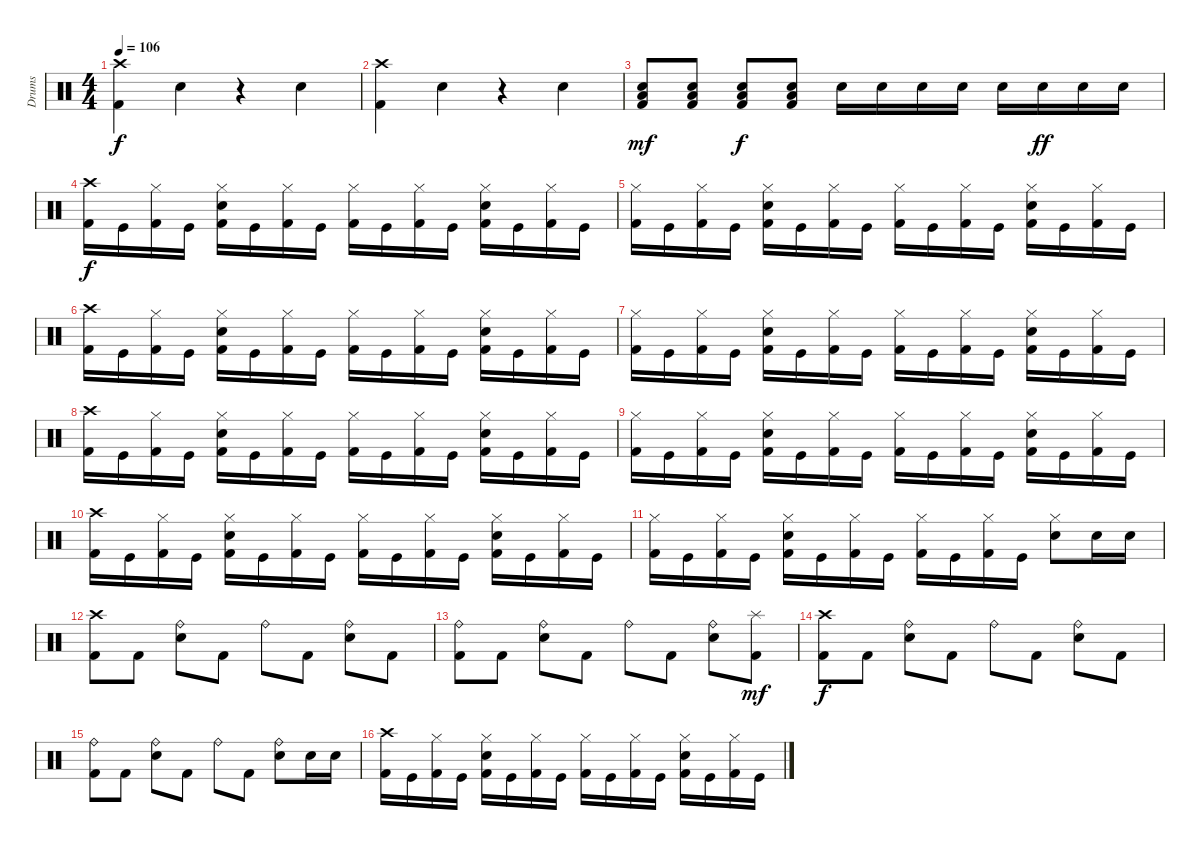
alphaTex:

\track ("Drums" "Drums") {instrument percussion}
\staff {score}
\articulation defaults
\ts (4 4)
\tempo 106
\clef neutral
\ks c
("Crash high (hit)" "Kick (hit) 2").4{dy f} "Electric Snare (hit)".4 r.4 "Electric Snare (hit)".4 |
("Crash high (hit)" "Kick (hit) 2").4 "Electric Snare (hit)".4 r.4 "Electric Snare (hit)".4 |
("Low Floor Tom (hit)" "Kick (hit) 2" "Electric Snare (hit)").8{dy mf} ("Low Floor Tom (hit)" "Kick (hit) 2" "Electric Snare (hit)").8 ("Low Floor Tom (hit)" "Electric Snare (hit)" "Kick (hit) 2").8{dy f} ("Kick (hit) 2" "Low Floor Tom (hit)" "Electric Snare (hit)").8 "Electric Snare (hit)".16 "Electric Snare (hit)".16 "Electric Snare (hit)".16 "Electric Snare (hit)".16 "Electric Snare (hit)".16 "Electric Snare (hit)".16{dy ff} "Electric Snare (hit)".16 "Electric Snare (hit)".16 |
("Crash high (hit)" "Kick (hit) 2").16{dy f} "Kick (hit)".16 ("Hi-Hat (closed)" "Kick (hit) 2").16 "Kick (hit)".16 ("Kick (hit) 2" "Electric Snare (hit)" "Hi-Hat (closed)").16 "Kick (hit)".16 ("Kick (hit) 2" "Hi-Hat (closed)").16 "Kick (hit)".16 ("Kick (hit) 2" "Hi-Hat (closed)").16 "Kick (hit)".16 ("Kick (hit) 2" "Hi-Hat (closed)").16 "Kick (hit)".16 ("Electric Snare (hit)" "Kick (hit) 2" "Hi-Hat (closed)").16 "Kick (hit)".16 ("Kick (hit) 2" "Hi-Hat (closed)").16 "Kick (hit)".16 |
("Kick (hit) 2" "Hi-Hat (closed)").16 "Kick (hit)".16 ("Kick (hit) 2" "Hi-Hat (closed)").16 "Kick (hit)".16 ("Electric Snare (hit)" "Hi-Hat (closed)" "Kick (hit) 2").16 "Kick (hit)".16 ("Kick (hit) 2" "Hi-Hat (closed)").16 "Kick (hit)".16 ("Hi-Hat (closed)" "Kick (hit) 2").16 "Kick (hit)".16 ("Hi-Hat (closed)" "Kick (hit) 2").16 "Kick (hit)".16 ("Electric Snare (hit)" "Kick (hit) 2" "Hi-Hat (closed)").16 "Kick (hit)".16 ("Hi-Hat (closed)" "Kick (hit) 2").16 "Kick (hit)".16 |
("Crash high (hit)" "Kick (hit) 2").16 "Kick (hit)".16 ("Hi-Hat (closed)" "Kick (hit) 2").16 "Kick (hit)".16 ("Hi-Hat (closed)" "Kick (hit) 2" "Electric Snare (hit)").16 "Kick (hit)".16 ("Kick (hit) 2" "Hi-Hat (closed)").16 "Kick (hit)".16 ("Kick (hit) 2" "Hi-Hat (closed)").16 "Kick (hit)".16 ("Hi-Hat (closed)" "Kick (hit) 2").16 "Kick (hit)".16 ("Electric Snare (hit)" "Kick (hit) 2" "Hi-Hat (closed)").16 "Kick (hit)".16 ("Kick (hit) 2" "Hi-Hat (closed)").16 "Kick (hit)".16 |
("Kick (hit) 2" "Hi-Hat (closed)").16 "Kick (hit)".16 ("Kick (hit) 2" "Hi-Hat (closed)").16 "Kick (hit)".16 ("Hi-Hat (closed)" "Electric Snare (hit)" "Kick (hit) 2").16 "Kick (hit)".16 ("Kick (hit) 2" "Hi-Hat (closed)").16 "Kick (hit)".16 ("Hi-Hat (closed)" "Kick (hit) 2").16 "Kick (hit)".16 ("Hi-Hat (closed)" "Kick (hit) 2").16 "Kick (hit)".16 ("Electric Snare (hit)" "Hi-Hat (closed)" "Kick (hit) 2").16 "Kick (hit)".16 ("Kick (hit) 2" "Hi-Hat (closed)").16 "Kick (hit)".16 |
("Crash high (hit)" "Kick (hit) 2").16 "Kick (hit)".16 ("Kick (hit) 2" "Hi-Hat (closed)").16 "Kick (hit)".16 ("Electric Snare (hit)" "Kick (hit) 2" "Hi-Hat (closed)").16 "Kick (hit)".16 ("Hi-Hat (closed)" "Kick (hit) 2").16 "Kick (hit)".16 ("Kick (hit) 2" "Hi-Hat (closed)").16 "Kick (hit)".16 ("Kick (hit) 2" "Hi-Hat (closed)").16 "Kick (hit)".16 ("Kick (hit) 2" "Hi-Hat (closed)" "Electric Snare (hit)").16 "Kick (hit)".16 ("Hi-Hat (closed)" "Kick (hit) 2").16 "Kick (hit)".16 |
("Hi-Hat (closed)" "Kick (hit) 2").16 "Kick (hit)".16 ("Kick (hit) 2" "Hi-Hat (closed)").16 "Kick (hit)".16 ("Kick (hit) 2" "Hi-Hat (closed)" "Electric Snare (hit)").16 "Kick (hit)".16 ("Hi-Hat (closed)" "Kick (hit) 2").16 "Kick (hit)".16 ("Kick (hit) 2" "Hi-Hat (closed)").16 "Kick (hit)".16 ("Hi-Hat (closed)" "Kick (hit) 2").16 "Kick (hit)".16 ("Electric Snare (hit)" "Hi-Hat (closed)" "Kick (hit) 2").16 "Kick (hit)".16 ("Kick (hit) 2" "Hi-Hat (closed)").16 "Kick (hit)".16 |
("Crash high (hit)" "Kick (hit) 2").16 "Kick (hit)".16 ("Kick (hit) 2" "Hi-Hat (closed)").16 "Kick (hit)".16 ("Hi-Hat (closed)" "Electric Snare (hit)" "Kick (hit) 2").16 "Kick (hit)".16 ("Hi-Hat (closed)" "Kick (hit) 2").16 "Kick (hit)".16 ("Kick (hit) 2" "Hi-Hat (closed)").16 "Kick (hit)".16 ("Hi-Hat (closed)" "Kick (hit) 2").16 "Kick (hit)".16 ("Hi-Hat (closed)" "Kick (hit) 2" "Electric Snare (hit)").16 "Kick (hit)".16 ("Hi-Hat (closed)" "Kick (hit) 2").16 "Kick (hit)".16 |
("Hi-Hat (closed)" "Kick (hit) 2").16 "Kick (hit)".16 ("Kick (hit) 2" "Hi-Hat (closed)").16 "Kick (hit)".16 ("Hi-Hat (closed)" "Electric Snare (hit)" "Kick (hit) 2").16 "Kick (hit)".16 ("Hi-Hat (closed)" "Kick (hit) 2").16 "Kick (hit)".16 ("Kick (hit) 2" "Hi-Hat (closed)").16 "Kick (hit)".16 ("Kick (hit) 2" "Hi-Hat (closed)").16 "Kick (hit)".16 ("Hi-Hat (closed)" "Electric Snare (hit)").8 "Electric Snare (hit)".16 "Electric Snare (hit)".16 |
("Kick (hit) 2" "Crash high (hit)").8 "Kick (hit) 2".8 ("Ride (bell)" "Electric Snare (hit)").8 "Kick (hit) 2".8 "Ride (bell)".8 "Kick (hit) 2".8 ("Ride (bell)" "Electric Snare (hit)").8 "Kick (hit) 2".8 |
("Ride (bell)" "Kick (hit) 2").8 "Kick (hit) 2".8 ("Ride (bell)" "Electric Snare (hit)").8 "Kick (hit) 2".8 "Ride (bell)".8 "Kick (hit) 2".8 ("Ride (bell)" "Electric Snare (hit)").8 ("Splash (hit)" "Kick (hit) 2").8{dy mf} |
("Kick (hit) 2" "Crash high (hit)").8{dy f} "Kick (hit) 2".8 ("Ride (bell)" "Electric Snare (hit)").8 "Kick (hit) 2".8 "Ride (bell)".8 "Kick (hit) 2".8 ("Electric Snare (hit)" "Ride (bell)").8 "Kick (hit) 2".8 |
("Ride (bell)" "Kick (hit) 2").8 "Kick (hit) 2".8 ("Electric Snare (hit)" "Ride (bell)").8 "Kick (hit) 2".8 "Ride (bell)".8 "Kick (hit) 2".8 ("Electric Snare (hit)" "Ride (bell)").8 "Electric Snare (hit)".16 "Electric Snare (hit)".16 |
("Kick (hit) 2" "Crash high (hit)").16 "Kick (hit)".16 ("Kick (hit) 2" "Hi-Hat (closed)").16 "Kick (hit)".16 ("Electric Snare (hit)" "Kick (hit) 2" "Hi-Hat (closed)").16 "Kick (hit)".16 ("Hi-Hat (closed)" "Kick (hit) 2").16 "Kick (hit)".16 ("Hi-Hat (closed)" "Kick (hit) 2").16 "Kick (hit)".16 ("Kick (hit) 2" "Hi-Hat (closed)").16 "Kick (hit)".16 ("Kick (hit) 2" "Hi-Hat (closed)" "Electric Snare (hit)").16 "Kick (hit)".16 ("Hi-Hat (closed)" "Kick (hit) 2").16 "Kick (hit)".16
